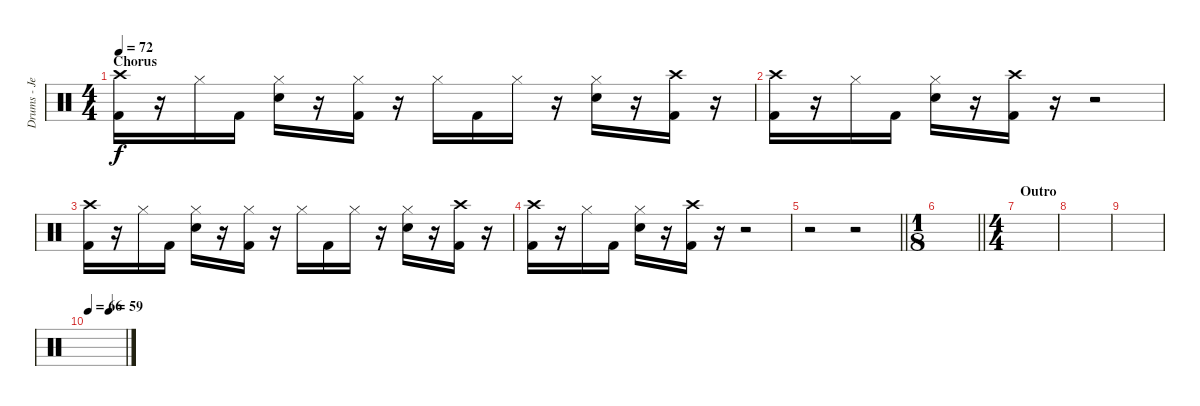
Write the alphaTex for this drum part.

\track ("Drums - Jerry Gaskill" "Drums - Je") {instrument percussion}
\staff {score}
\articulation defaults
\ts (4 4)
\section ("" "Chorus")
\tempo 72
\clef neutral
\ks c
("Kick (hit) 2" "Crash high (hit)").16{dy f} r.16 "Hi-Hat (closed)".16 "Kick (hit) 2".16 ("Snare (hit) 2" "Hi-Hat (closed)").16 r.16 ("Kick (hit) 2" "Hi-Hat (closed)").16 r.16 "Hi-Hat (closed)".16 "Kick (hit) 2".16 "Hi-Hat (closed)".16 r.16 ("Snare (hit) 2" "Hi-Hat (closed)").16 r.16 ("Kick (hit) 2" "Crash high (hit)").16 r.16 |
("Kick (hit) 2" "Crash high (hit)").16 r.16 "Hi-Hat (closed)".16 "Kick (hit) 2".16 ("Snare (hit) 2" "Hi-Hat (closed)").16 r.16 ("Kick (hit) 2" "Crash high (hit)").16 r.16 r.2 |
("Kick (hit) 2" "Crash high (hit)").16 r.16 "Hi-Hat (closed)".16 "Kick (hit) 2".16 ("Snare (hit) 2" "Hi-Hat (closed)").16 r.16 ("Kick (hit) 2" "Hi-Hat (closed)").16 r.16 "Hi-Hat (closed)".16 "Kick (hit) 2".16 "Hi-Hat (closed)".16 r.16 ("Snare (hit) 2" "Hi-Hat (closed)").16 r.16 ("Kick (hit) 2" "Crash high (hit)").16 r.16 |
("Kick (hit) 2" "Crash high (hit)").16 r.16 "Hi-Hat (closed)".16 "Kick (hit) 2".16 ("Snare (hit) 2" "Hi-Hat (closed)").16 r.16 ("Kick (hit) 2" "Crash high (hit)").16 r.16 r.2 |
\barLineRight lightlight
r.2 r.2 |
\ts (1 8)
\barLineRight lightlight
|
\ts (4 4)
\section ("" "Outro")
|
|
|
\tempo 66
\tempo (59 0.5625)
